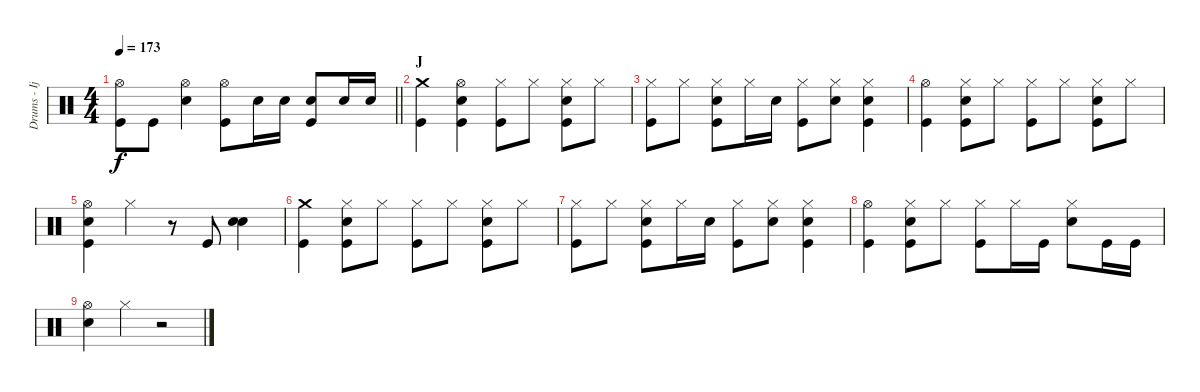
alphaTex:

\track ("Drums - Ijichi" "Drums - Ij") {instrument percussion}
\staff {score}
\articulation defaults
\ts (4 4)
\tempo 173
\clef neutral
\barLineRight lightlight
\ks c
("Hi-Hat (open)" "Kick (hit)").8{dy f} "Kick (hit)".8 ("Hi-Hat (open)" "Electric Snare (hit)").4 ("Hi-Hat (open)" "Kick (hit)").8 "Electric Snare (hit)".16 "Electric Snare (hit)".16 ("Electric Snare (hit)" "Kick (hit)").8 "Electric Snare (hit)".16 "Electric Snare (hit)".16 |
\section ("" "J")
("Crash medium (hit)" "Kick (hit)").4 ("Hi-Hat (open)" "Electric Snare (hit)" "Kick (hit)").4 ("Hi-Hat (closed)" "Kick (hit)").8 "Hi-Hat (closed)".8 ("Hi-Hat (closed)" "Electric Snare (hit)" "Kick (hit)").8 "Hi-Hat (closed)".8 |
("Hi-Hat (closed)" "Kick (hit)").8 "Hi-Hat (closed)".8 ("Hi-Hat (closed)" "Electric Snare (hit)" "Kick (hit)").8 "Hi-Hat (closed)".16 "Electric Snare (hit)".16 ("Hi-Hat (closed)" "Kick (hit)").8 ("Hi-Hat (closed)" "Electric Snare (hit)").8 ("Hi-Hat (closed)" "Electric Snare (hit)" "Kick (hit)").4 |
("Hi-Hat (open)" "Kick (hit)").4 ("Hi-Hat (closed)" "Electric Snare (hit)" "Kick (hit)").8 "Hi-Hat (closed)".8 ("Hi-Hat (closed)" "Kick (hit)").8 "Hi-Hat (closed)".8 ("Hi-Hat (closed)" "Electric Snare (hit)" "Kick (hit)").8 "Hi-Hat (closed)".8 |
("Hi-Hat (open)" "Electric Snare (hit)" "Kick (hit)").4 "Hi-Hat (closed)".4 r.8 "Kick (hit)".8 ("Electric Snare (hit)" "Electric Snare (hit)").4 |
("Crash medium (hit)" "Kick (hit)").4 ("Hi-Hat (closed)" "Electric Snare (hit)" "Kick (hit)").8 "Hi-Hat (closed)".8 ("Hi-Hat (closed)" "Kick (hit)").8 "Hi-Hat (closed)".8 ("Hi-Hat (closed)" "Electric Snare (hit)" "Kick (hit)").8 "Hi-Hat (closed)".8 |
("Hi-Hat (closed)" "Kick (hit)").8 "Hi-Hat (closed)".8 ("Hi-Hat (closed)" "Electric Snare (hit)" "Kick (hit)").8 "Hi-Hat (closed)".16 "Electric Snare (hit)".16 ("Hi-Hat (closed)" "Kick (hit)").8 ("Hi-Hat (closed)" "Electric Snare (hit)").8 ("Hi-Hat (closed)" "Electric Snare (hit)" "Kick (hit)").4 |
("Hi-Hat (open)" "Kick (hit)").4 ("Hi-Hat (closed)" "Electric Snare (hit)" "Kick (hit)").8 "Hi-Hat (closed)".8 ("Hi-Hat (closed)" "Kick (hit)").8 "Hi-Hat (closed)".16 "Kick (hit)".16 ("Hi-Hat (closed)" "Electric Snare (hit)").8 "Kick (hit)".16 "Kick (hit)".16 |
("Hi-Hat (open)" "Electric Snare (hit)").4 "Hi-Hat (closed)".4 r.2
